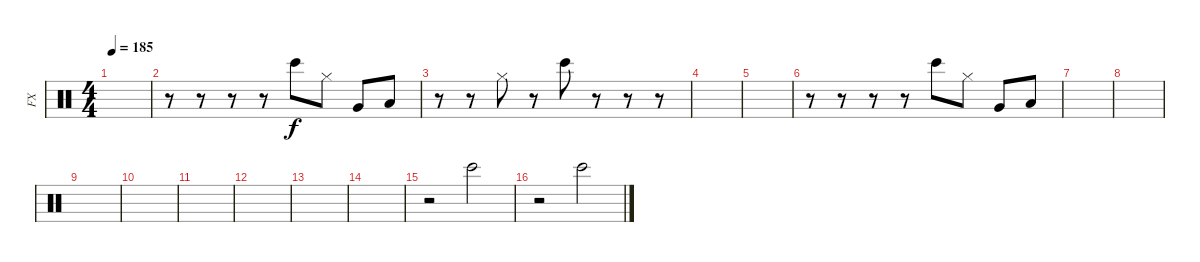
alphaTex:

\track ("FX" "FX") {instrument percussion}
\staff {score}
\articulation defaults
\ts (4 4)
\tempo 185
\clef neutral
\ks c
|
r.8 r.8 r.8 r.8 "Bongo High (hit)".8{dy f} "Hi-Hat (closed)".8 "Very Low Tom (hit)".8 "Low Floor Tom (hit)".8 |
r.8 r.8 "Hi-Hat (closed)".8 r.8 "Bongo High (hit)".8 r.8 r.8 r.8 |
|
|
r.8 r.8 r.8 r.8 "Bongo High (hit)".8 "Hi-Hat (closed)".8 "Very Low Tom (hit)".8 "Low Floor Tom (hit)".8 |
|
|
|
|
|
|
|
|
r.2 "Bongo High (hit)".2 |
r.2 "Bongo High (hit)".2
